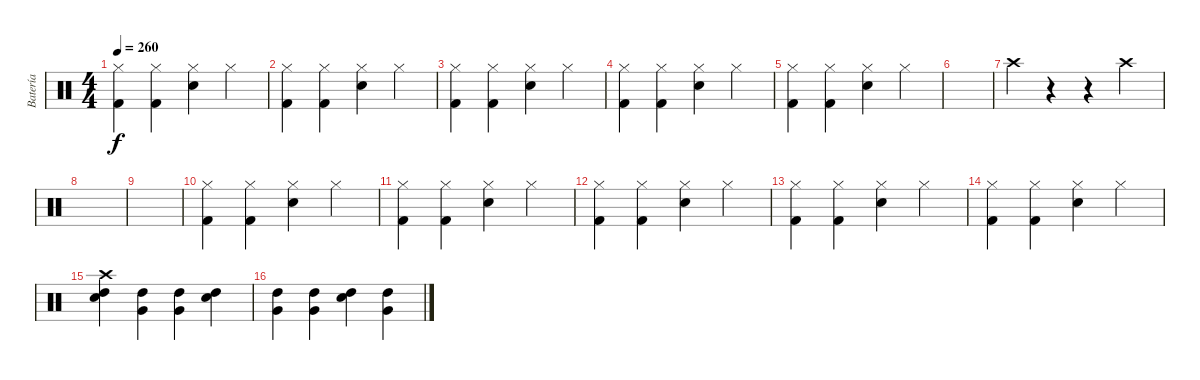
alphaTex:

\track ("Batería" "Batería") {instrument percussion}
\staff {score}
\articulation defaults
\ts (4 4)
\tempo 260
\clef neutral
\ks c
("Kick (hit) 2" "Hi-Hat (closed)").4{dy f} ("Kick (hit) 2" "Hi-Hat (closed)").4 ("Snare (hit) 2" "Hi-Hat (closed)").4 "Hi-Hat (closed)".4 |
("Kick (hit) 2" "Hi-Hat (closed)").4 ("Kick (hit) 2" "Hi-Hat (closed)").4 ("Snare (hit) 2" "Hi-Hat (closed)").4 "Hi-Hat (closed)".4 |
("Kick (hit) 2" "Hi-Hat (closed)").4 ("Kick (hit) 2" "Hi-Hat (closed)").4 ("Snare (hit) 2" "Hi-Hat (closed)").4 "Hi-Hat (closed)".4 |
("Kick (hit) 2" "Hi-Hat (closed)").4 ("Kick (hit) 2" "Hi-Hat (closed)").4 ("Snare (hit) 2" "Hi-Hat (closed)").4 "Hi-Hat (closed)".4 |
("Kick (hit) 2" "Hi-Hat (closed)").4 ("Kick (hit) 2" "Hi-Hat (closed)").4 ("Snare (hit) 2" "Hi-Hat (closed)").4 "Hi-Hat (closed)".4 |
|
"Crash high (hit)".4 r.4 r.4 "Crash high (hit)".4 |
|
|
("Kick (hit) 2" "Hi-Hat (closed)").4 ("Kick (hit) 2" "Hi-Hat (closed)").4 ("Snare (hit) 2" "Hi-Hat (closed)").4 "Hi-Hat (closed)".4 |
("Kick (hit) 2" "Hi-Hat (closed)").4 ("Kick (hit) 2" "Hi-Hat (closed)").4 ("Snare (hit) 2" "Hi-Hat (closed)").4 "Hi-Hat (closed)".4 |
("Kick (hit) 2" "Hi-Hat (closed)").4 ("Kick (hit) 2" "Hi-Hat (closed)").4 ("Snare (hit) 2" "Hi-Hat (closed)").4 "Hi-Hat (closed)".4 |
("Kick (hit) 2" "Hi-Hat (closed)").4 ("Kick (hit) 2" "Hi-Hat (closed)").4 ("Snare (hit) 2" "Hi-Hat (closed)").4 "Hi-Hat (closed)".4 |
("Kick (hit) 2" "Hi-Hat (closed)").4 ("Kick (hit) 2" "Hi-Hat (closed)").4 ("Snare (hit) 2" "Hi-Hat (closed)").4 "Hi-Hat (closed)".4 |
("Snare (hit) 2" "High Tom (hit)" "Crash high (hit)").4 ("Very Low Tom (hit)" "High Tom (hit)").4 ("Very Low Tom (hit)" "High Tom (hit)").4 ("Snare (hit) 2" "High Tom (hit)").4 |
("Very Low Tom (hit)" "High Tom (hit)").4 ("Very Low Tom (hit)" "High Tom (hit)").4 ("Snare (hit) 2" "High Tom (hit)").4 ("Very Low Tom (hit)" "High Tom (hit)").4
